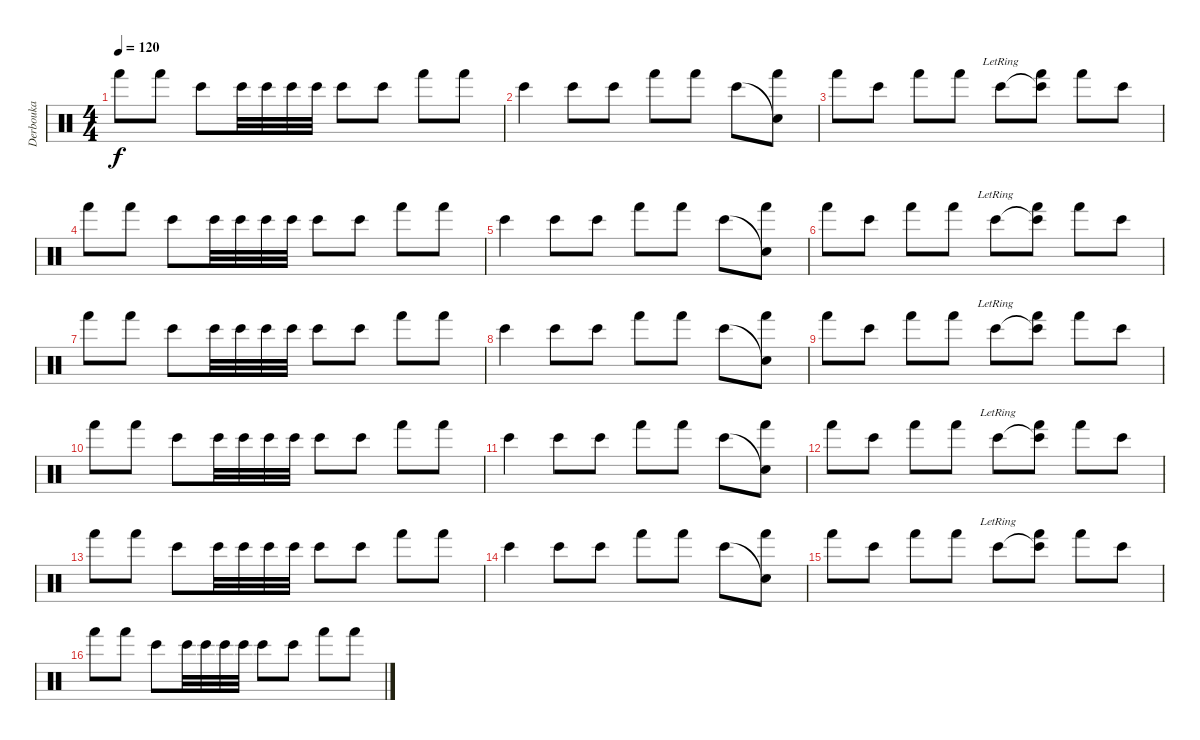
\track ("Derbouka" "Derbouka") {instrument percussion}
\staff {score}
\articulation defaults
\ts (4 4)
\tempo 120
\clef neutral
\ks c "Hand (hit)".8{dy f} "Hand (hit)".8 "Bongo High (hit)".8 "Bongo High (hit)".32 "Bongo High (hit)".32 "Bongo High (hit)".32 "Bongo High (hit)".32 "Bongo High (hit)".8 "Bongo High (hit)".8 "Hand (hit)".8 "Hand (hit)".8
|
"Bongo High (hit)".4 "Bongo High (hit)".8 "Bongo High (hit)".8 "Hand (hit)".8 "Hand (hit)".8 "Bongo High (hit)".8 ("Snare (hit)"{t} "Hand (hit)").8 |
"Hand (hit)".8 "Bongo High (hit)".8 "Hand (hit)".8 "Hand (hit)".8 "Bongo High (hit)"{lr}.8 ("Bongo High (hit)"{t} "Hand (hit)").8 "Hand (hit)".8 "Bongo High (hit)".8 |
"Hand (hit)".8 "Hand (hit)".8 "Bongo High (hit)".8 "Bongo High (hit)".32 "Bongo High (hit)".32 "Bongo High (hit)".32 "Bongo High (hit)".32 "Bongo High (hit)".8 "Bongo High (hit)".8 "Hand (hit)".8 "Hand (hit)".8 |
"Bongo High (hit)".4 "Bongo High (hit)".8 "Bongo High (hit)".8 "Hand (hit)".8 "Hand (hit)".8 "Bongo High (hit)".8 ("Snare (hit)"{t} "Hand (hit)").8 |
"Hand (hit)".8 "Bongo High (hit)".8 "Hand (hit)".8 "Hand (hit)".8 "Bongo High (hit)"{lr}.8 ("Bongo High (hit)"{t} "Hand (hit)").8 "Hand (hit)".8 "Bongo High (hit)".8 |
"Hand (hit)".8 "Hand (hit)".8 "Bongo High (hit)".8 "Bongo High (hit)".32 "Bongo High (hit)".32 "Bongo High (hit)".32 "Bongo High (hit)".32 "Bongo High (hit)".8 "Bongo High (hit)".8 "Hand (hit)".8 "Hand (hit)".8 |
"Bongo High (hit)".4 "Bongo High (hit)".8 "Bongo High (hit)".8 "Hand (hit)".8 "Hand (hit)".8 "Bongo High (hit)".8 ("Snare (hit)"{t} "Hand (hit)").8 |
"Hand (hit)".8 "Bongo High (hit)".8 "Hand (hit)".8 "Hand (hit)".8 "Bongo High (hit)"{lr}.8 ("Bongo High (hit)"{t} "Hand (hit)").8 "Hand (hit)".8 "Bongo High (hit)".8 |
"Hand (hit)".8 "Hand (hit)".8 "Bongo High (hit)".8 "Bongo High (hit)".32 "Bongo High (hit)".32 "Bongo High (hit)".32 "Bongo High (hit)".32 "Bongo High (hit)".8 "Bongo High (hit)".8 "Hand (hit)".8 "Hand (hit)".8 |
"Bongo High (hit)".4 "Bongo High (hit)".8 "Bongo High (hit)".8 "Hand (hit)".8 "Hand (hit)".8 "Bongo High (hit)".8 ("Snare (hit)"{t} "Hand (hit)").8 |
"Hand (hit)".8 "Bongo High (hit)".8 "Hand (hit)".8 "Hand (hit)".8 "Bongo High (hit)"{lr}.8 ("Bongo High (hit)"{t} "Hand (hit)").8 "Hand (hit)".8 "Bongo High (hit)".8 |
"Hand (hit)".8 "Hand (hit)".8 "Bongo High (hit)".8 "Bongo High (hit)".32 "Bongo High (hit)".32 "Bongo High (hit)".32 "Bongo High (hit)".32 "Bongo High (hit)".8 "Bongo High (hit)".8 "Hand (hit)".8 "Hand (hit)".8 |
"Bongo High (hit)".4 "Bongo High (hit)".8 "Bongo High (hit)".8 "Hand (hit)".8 "Hand (hit)".8 "Bongo High (hit)".8 ("Snare (hit)"{t} "Hand (hit)").8 |
"Hand (hit)".8 "Bongo High (hit)".8 "Hand (hit)".8 "Hand (hit)".8 "Bongo High (hit)"{lr}.8 ("Bongo High (hit)"{t} "Hand (hit)").8 "Hand (hit)".8 "Bongo High (hit)".8 |
"Hand (hit)".8 "Hand (hit)".8 "Bongo High (hit)".8 "Bongo High (hit)".32 "Bongo High (hit)".32 "Bongo High (hit)".32 "Bongo High (hit)".32 "Bongo High (hit)".8 "Bongo High (hit)".8 "Hand (hit)".8 "Hand (hit)".8
